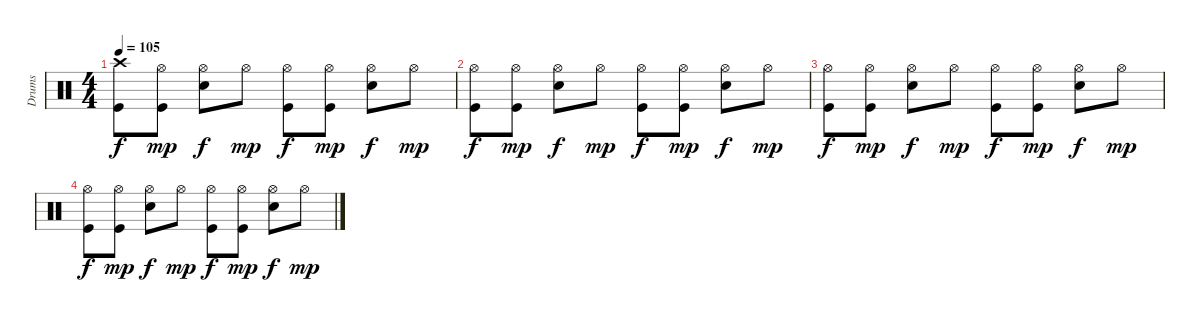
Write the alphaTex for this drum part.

\track ("Drums" "Drums") {instrument percussion}
\staff {score}
\articulation defaults
\ts (4 4)
\tempo 105
\clef neutral
\ks c
("Crash high (hit)" "Kick (hit)").8{dy f} ("Hi-Hat (open)" "Kick (hit)").8{dy mp} ("Hi-Hat (open)" "Snare (hit) 2").8{dy f} "Hi-Hat (open)".8{dy mp} ("Hi-Hat (open)" "Kick (hit)").8{dy f} ("Hi-Hat (open)" "Kick (hit)").8{dy mp} ("Hi-Hat (open)" "Snare (hit) 2").8{dy f} "Hi-Hat (open)".8{dy mp} |
("Hi-Hat (open)" "Kick (hit)").8{dy f} ("Hi-Hat (open)" "Kick (hit)").8{dy mp} ("Hi-Hat (open)" "Snare (hit) 2").8{dy f} "Hi-Hat (open)".8{dy mp} ("Hi-Hat (open)" "Kick (hit)").8{dy f} ("Hi-Hat (open)" "Kick (hit)").8{dy mp} ("Hi-Hat (open)" "Snare (hit) 2").8{dy f} "Hi-Hat (open)".8{dy mp} |
("Hi-Hat (open)" "Kick (hit)").8{dy f} ("Hi-Hat (open)" "Kick (hit)").8{dy mp} ("Hi-Hat (open)" "Snare (hit) 2").8{dy f} "Hi-Hat (open)".8{dy mp} ("Hi-Hat (open)" "Kick (hit)").8{dy f} ("Hi-Hat (open)" "Kick (hit)").8{dy mp} ("Hi-Hat (open)" "Snare (hit) 2").8{dy f} "Hi-Hat (open)".8{dy mp} |
("Hi-Hat (open)" "Kick (hit)").8{dy f} ("Hi-Hat (open)" "Kick (hit)").8{dy mp} ("Hi-Hat (open)" "Snare (hit) 2").8{dy f} "Hi-Hat (open)".8{dy mp} ("Hi-Hat (open)" "Kick (hit)").8{dy f} ("Hi-Hat (open)" "Kick (hit)").8{dy mp} ("Hi-Hat (open)" "Snare (hit) 2").8{dy f} "Hi-Hat (open)".8{dy mp}
